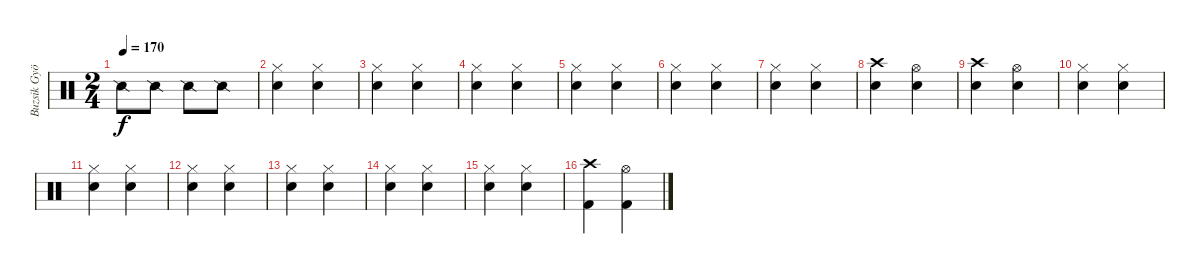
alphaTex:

\track ("Buzsik György (dob)" "Buzsik Gyö") {instrument percussion}
\staff {score}
\articulation defaults
\ts (2 4)
\tempo 170
\clef neutral
\ks c "Snare (side stick) 2".8{dy f} "Snare (side stick) 2".8 "Snare (side stick) 2".8 "Snare (side stick) 2".8
|
("Hi-Hat (closed)" "Snare (hit) 2").4 ("Hi-Hat (closed)" "Snare (hit) 2").4 |
("Hi-Hat (closed)" "Snare (hit) 2").4 ("Hi-Hat (closed)" "Snare (hit) 2").4 |
("Hi-Hat (closed)" "Snare (hit) 2").4 ("Hi-Hat (closed)" "Snare (hit) 2").4 |
("Hi-Hat (closed)" "Snare (hit) 2").4 ("Hi-Hat (closed)" "Snare (hit) 2").4 |
("Hi-Hat (closed)" "Snare (hit) 2").4 ("Hi-Hat (closed)" "Snare (hit) 2").4 |
("Hi-Hat (closed)" "Snare (hit) 2").4 ("Hi-Hat (closed)" "Snare (hit) 2").4 |
("Crash high (hit)" "Snare (hit) 2").4 ("Hi-Hat (open)" "Snare (hit) 2").4 |
("Crash high (hit)" "Snare (hit) 2").4 ("Hi-Hat (open)" "Snare (hit) 2").4 |
("Hi-Hat (closed)" "Snare (hit) 2").4 ("Hi-Hat (closed)" "Snare (hit) 2").4 |
("Hi-Hat (closed)" "Snare (hit) 2").4 ("Hi-Hat (closed)" "Snare (hit) 2").4 |
("Hi-Hat (closed)" "Snare (hit) 2").4 ("Hi-Hat (closed)" "Snare (hit) 2").4 |
("Hi-Hat (closed)" "Snare (hit) 2").4 ("Hi-Hat (closed)" "Snare (hit) 2").4 |
("Hi-Hat (closed)" "Snare (hit) 2").4 ("Hi-Hat (closed)" "Snare (hit) 2").4 |
("Hi-Hat (closed)" "Snare (hit) 2").4 ("Hi-Hat (closed)" "Snare (hit) 2").4 |
("Crash high (hit)" "Kick (hit) 2").4 ("Hi-Hat (open)" "Kick (hit) 2").4
